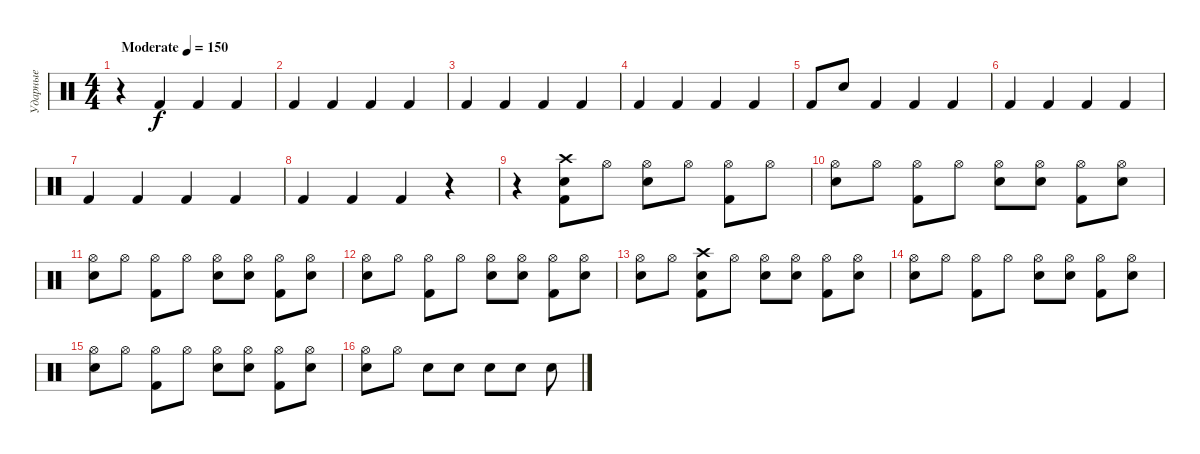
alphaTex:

\track ("Ударные" "Ударные") {instrument percussion}
\staff {score}
\articulation defaults
\ts (4 4)
\tempo (150 "Moderate")
\clef neutral
\ks c
r.4{dy f} "Kick (hit) 2".4 "Kick (hit) 2".4 "Kick (hit) 2".4 |
"Kick (hit) 2".4 "Kick (hit) 2".4 "Kick (hit) 2".4 "Kick (hit) 2".4 |
"Kick (hit) 2".4 "Kick (hit) 2".4 "Kick (hit) 2".4 "Kick (hit) 2".4 |
"Kick (hit) 2".4 "Kick (hit) 2".4 "Kick (hit) 2".4 "Kick (hit) 2".4 |
"Kick (hit) 2".8 "Snare (hit) 2".8 "Kick (hit) 2".4 "Kick (hit) 2".4 "Kick (hit) 2".4 |
"Kick (hit) 2".4 "Kick (hit) 2".4 "Kick (hit) 2".4 "Kick (hit) 2".4 |
"Kick (hit) 2".4 "Kick (hit) 2".4 "Kick (hit) 2".4 "Kick (hit) 2".4 |
"Kick (hit) 2".4 "Kick (hit) 2".4 "Kick (hit) 2".4 r.4 |
r.4 ("Snare (hit)" "Kick (hit) 2" "Crash high (hit)").8 "Hi-Hat (open)".8 ("Hi-Hat (open)" "Electric Snare (hit)").8 "Hi-Hat (open)".8 ("Hi-Hat (open)" "Kick (hit) 2").8 "Hi-Hat (open)".8 |
("Hi-Hat (open)" "Electric Snare (hit)").8 "Hi-Hat (open)".8 ("Hi-Hat (open)" "Kick (hit) 2").8 "Hi-Hat (open)".8 ("Hi-Hat (open)" "Electric Snare (hit)").8 ("Hi-Hat (open)" "Snare (hit)").8 ("Hi-Hat (open)" "Kick (hit) 2").8 ("Hi-Hat (open)" "Snare (hit)").8 |
("Hi-Hat (open)" "Electric Snare (hit)").8 "Hi-Hat (open)".8 ("Hi-Hat (open)" "Kick (hit) 2").8 "Hi-Hat (open)".8 ("Hi-Hat (open)" "Electric Snare (hit)").8 ("Hi-Hat (open)" "Snare (hit)").8 ("Hi-Hat (open)" "Kick (hit) 2").8 ("Hi-Hat (open)" "Snare (hit)").8 |
("Hi-Hat (open)" "Electric Snare (hit)").8 "Hi-Hat (open)".8 ("Hi-Hat (open)" "Kick (hit) 2").8 "Hi-Hat (open)".8 ("Hi-Hat (open)" "Electric Snare (hit)").8 ("Hi-Hat (open)" "Snare (hit)").8 ("Hi-Hat (open)" "Kick (hit) 2").8 ("Hi-Hat (open)" "Snare (hit)").8 |
("Hi-Hat (open)" "Electric Snare (hit)").8 "Hi-Hat (open)".8 ("Snare (hit)" "Kick (hit) 2" "Crash high (hit)").8 "Hi-Hat (open)".8 ("Hi-Hat (open)" "Electric Snare (hit)").8 ("Hi-Hat (open)" "Snare (hit)").8 ("Hi-Hat (open)" "Kick (hit) 2").8 ("Hi-Hat (open)" "Snare (hit)").8 |
("Hi-Hat (open)" "Electric Snare (hit)").8 "Hi-Hat (open)".8 ("Hi-Hat (open)" "Kick (hit) 2").8 "Hi-Hat (open)".8 ("Hi-Hat (open)" "Electric Snare (hit)").8 ("Hi-Hat (open)" "Snare (hit)").8 ("Hi-Hat (open)" "Kick (hit) 2").8 ("Hi-Hat (open)" "Snare (hit)").8 |
("Hi-Hat (open)" "Electric Snare (hit)").8 "Hi-Hat (open)".8 ("Hi-Hat (open)" "Kick (hit) 2").8 "Hi-Hat (open)".8 ("Hi-Hat (open)" "Electric Snare (hit)").8 ("Hi-Hat (open)" "Snare (hit)").8 ("Hi-Hat (open)" "Kick (hit) 2").8 ("Hi-Hat (open)" "Snare (hit)").8 |
("Hi-Hat (open)" "Electric Snare (hit)").8 "Hi-Hat (open)".8 "Electric Snare (hit)".8 "Electric Snare (hit)".8 "Electric Snare (hit)".8 "Electric Snare (hit)".8 "Electric Snare (hit)".8
